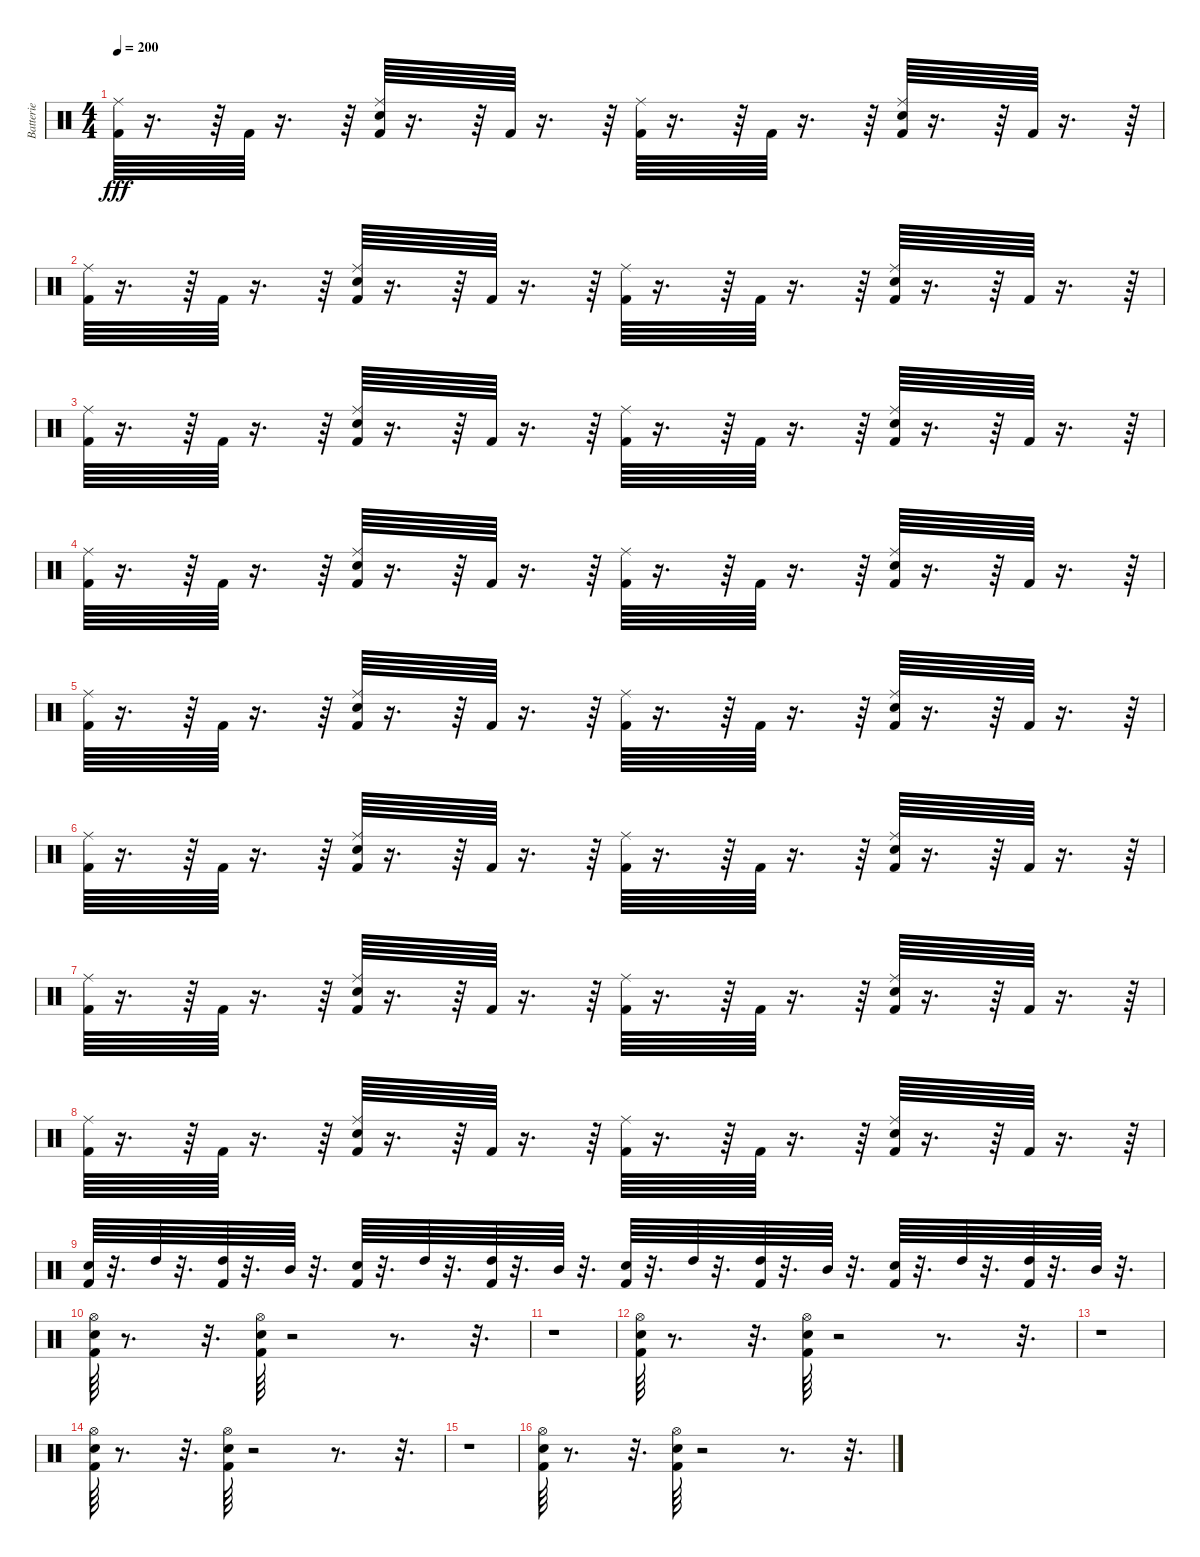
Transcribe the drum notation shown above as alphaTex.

\track ("Batterie" "Batterie") {instrument percussion}
\staff {score}
\articulation defaults
\ts (4 4)
\tempo 200
\clef neutral
\ks c
("Kick (hit) 2" "Ride (middle)").64{dy fff} r.16{d} r.64 "Kick (hit) 2".64 r.16{d} r.64 ("Kick (hit) 2" "Snare (hit) 2" "Ride (middle)").64 r.16{d} r.64 "Kick (hit) 2".64 r.16{d} r.64 ("Kick (hit) 2" "Ride (middle)").64 r.16{d} r.64 "Kick (hit) 2".64 r.16{d} r.64 ("Kick (hit) 2" "Snare (hit) 2" "Ride (middle)").64 r.16{d} r.64 "Kick (hit) 2".64 r.16{d} r.64 |
("Kick (hit) 2" "Ride (middle)").64 r.16{d} r.64 "Kick (hit) 2".64 r.16{d} r.64 ("Kick (hit) 2" "Snare (hit) 2" "Ride (middle)").64 r.16{d} r.64 "Kick (hit) 2".64 r.16{d} r.64 ("Kick (hit) 2" "Ride (middle)").64 r.16{d} r.64 "Kick (hit) 2".64 r.16{d} r.64 ("Kick (hit) 2" "Snare (hit) 2" "Ride (middle)").64 r.16{d} r.64 "Kick (hit) 2".64 r.16{d} r.64 |
("Kick (hit) 2" "Ride (middle)").64 r.16{d} r.64 "Kick (hit) 2".64 r.16{d} r.64 ("Kick (hit) 2" "Snare (hit) 2" "Ride (middle)").64 r.16{d} r.64 "Kick (hit) 2".64 r.16{d} r.64 ("Kick (hit) 2" "Ride (middle)").64 r.16{d} r.64 "Kick (hit) 2".64 r.16{d} r.64 ("Kick (hit) 2" "Snare (hit) 2" "Ride (middle)").64 r.16{d} r.64 "Kick (hit) 2".64 r.16{d} r.64 |
("Kick (hit) 2" "Ride (middle)").64 r.16{d} r.64 "Kick (hit) 2".64 r.16{d} r.64 ("Kick (hit) 2" "Snare (hit) 2" "Ride (middle)").64 r.16{d} r.64 "Kick (hit) 2".64 r.16{d} r.64 ("Kick (hit) 2" "Ride (middle)").64 r.16{d} r.64 "Kick (hit) 2".64 r.16{d} r.64 ("Kick (hit) 2" "Snare (hit) 2" "Ride (middle)").64 r.16{d} r.64 "Kick (hit) 2".64 r.16{d} r.64 |
("Kick (hit) 2" "Ride (middle)").64 r.16{d} r.64 "Kick (hit) 2".64 r.16{d} r.64 ("Kick (hit) 2" "Snare (hit) 2" "Ride (middle)").64 r.16{d} r.64 "Kick (hit) 2".64 r.16{d} r.64 ("Kick (hit) 2" "Ride (middle)").64 r.16{d} r.64 "Kick (hit) 2".64 r.16{d} r.64 ("Kick (hit) 2" "Snare (hit) 2" "Ride (middle)").64 r.16{d} r.64 "Kick (hit) 2".64 r.16{d} r.64 |
("Kick (hit) 2" "Ride (middle)").64 r.16{d} r.64 "Kick (hit) 2".64 r.16{d} r.64 ("Kick (hit) 2" "Snare (hit) 2" "Ride (middle)").64 r.16{d} r.64 "Kick (hit) 2".64 r.16{d} r.64 ("Kick (hit) 2" "Ride (middle)").64 r.16{d} r.64 "Kick (hit) 2".64 r.16{d} r.64 ("Kick (hit) 2" "Snare (hit) 2" "Ride (middle)").64 r.16{d} r.64 "Kick (hit) 2".64 r.16{d} r.64 |
("Kick (hit) 2" "Ride (middle)").64 r.16{d} r.64 "Kick (hit) 2".64 r.16{d} r.64 ("Kick (hit) 2" "Snare (hit) 2" "Ride (middle)").64 r.16{d} r.64 "Kick (hit) 2".64 r.16{d} r.64 ("Kick (hit) 2" "Ride (middle)").64 r.16{d} r.64 "Kick (hit) 2".64 r.16{d} r.64 ("Kick (hit) 2" "Snare (hit) 2" "Ride (middle)").64 r.16{d} r.64 "Kick (hit) 2".64 r.16{d} r.64 |
("Kick (hit) 2" "Ride (middle)").64 r.16{d} r.64 "Kick (hit) 2".64 r.16{d} r.64 ("Kick (hit) 2" "Snare (hit) 2" "Ride (middle)").64 r.16{d} r.64 "Kick (hit) 2".64 r.16{d} r.64 ("Kick (hit) 2" "Ride (middle)").64 r.16{d} r.64 "Kick (hit) 2".64 r.16{d} r.64 ("Kick (hit) 2" "Snare (hit) 2" "Ride (middle)").64 r.16{d} r.64 "Kick (hit) 2".64 r.16{d} r.64 |
("Kick (hit) 2" "Snare (hit) 2").64 r.32{d} "High Tom (hit)".64 r.32{d} ("Kick (hit) 2" "High Tom (hit)").64 r.32{d} "Mid Tom (hit)".64 r.32{d} ("Kick (hit) 2" "Snare (hit) 2").64 r.32{d} "High Tom (hit)".64 r.32{d} ("Kick (hit) 2" "High Tom (hit)").64 r.32{d} "Mid Tom (hit)".64 r.32{d} ("Kick (hit) 2" "Snare (hit) 2").64 r.32{d} "High Tom (hit)".64 r.32{d} ("Kick (hit) 2" "High Tom (hit)").64 r.32{d} "Mid Tom (hit)".64 r.32{d} ("Kick (hit) 2" "Snare (hit) 2").64 r.32{d} "High Tom (hit)".64 r.32{d} ("Kick (hit) 2" "High Tom (hit)").64 r.32{d} "Mid Tom (hit)".64 r.32{d} |
("Snare (hit) 2" "Hi-Hat (open)" "Kick (hit) 2").64 r.8{d} r.32{d} ("Snare (hit) 2" "Hi-Hat (open)" "Kick (hit) 2").64 r.2 r.8{d} r.32{d} |
r.1 |
("Snare (hit) 2" "Hi-Hat (open)" "Kick (hit) 2").64 r.8{d} r.32{d} ("Snare (hit) 2" "Hi-Hat (open)" "Kick (hit) 2").64 r.2 r.8{d} r.32{d} |
r.1 |
("Snare (hit) 2" "Hi-Hat (open)" "Kick (hit) 2").64 r.8{d} r.32{d} ("Snare (hit) 2" "Hi-Hat (open)" "Kick (hit) 2").64 r.2 r.8{d} r.32{d} |
r.1 |
("Kick (hit) 2" "Snare (hit) 2" "Hi-Hat (open)").64 r.8{d} r.32{d} ("Kick (hit) 2" "Snare (hit) 2" "Hi-Hat (open)").64 r.2 r.8{d} r.32{d}
